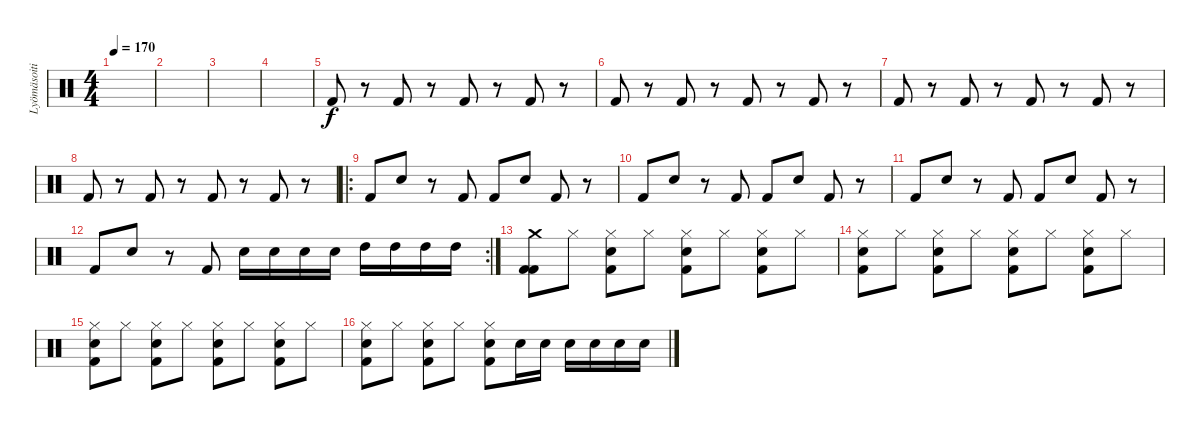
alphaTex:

\track ("Lyömäsoitin" "Lyömäsoiti") {instrument percussion}
\staff {score}
\articulation defaults
\ts (4 4)
\tempo 170
\clef neutral
\ks c
|
|
|
|
"Kick (hit) 2".8 r.8 "Kick (hit) 2".8 r.8 "Kick (hit) 2".8 r.8 "Kick (hit) 2".8 r.8 |
"Kick (hit) 2".8 r.8 "Kick (hit) 2".8 r.8 "Kick (hit) 2".8 r.8 "Kick (hit) 2".8 r.8 |
"Kick (hit) 2".8 r.8 "Kick (hit) 2".8 r.8 "Kick (hit) 2".8 r.8 "Kick (hit) 2".8 r.8 |
"Kick (hit) 2".8 r.8 "Kick (hit) 2".8 r.8 "Kick (hit) 2".8 r.8 "Kick (hit) 2".8 r.8 |
\ro "Kick (hit) 2".8 "Snare (hit) 2".8
r.8 "Kick (hit) 2".8 "Kick (hit) 2".8 "Snare (hit) 2".8 "Kick (hit) 2".8 r.8 |
"Kick (hit) 2".8 "Snare (hit) 2".8 r.8 "Kick (hit) 2".8 "Kick (hit) 2".8 "Snare (hit) 2".8 "Kick (hit) 2".8 r.8 |
"Kick (hit) 2".8 "Snare (hit) 2".8 r.8 "Kick (hit) 2".8 "Kick (hit) 2".8 "Snare (hit) 2".8 "Kick (hit) 2".8 r.8 |
\rc 2 "Kick (hit) 2".8 "Snare (hit) 2".8
r.8 "Kick (hit) 2".8 "Snare (hit) 2".16 "Snare (hit) 2".16 "Snare (hit) 2".16 "Snare (hit) 2".16 "High Tom (hit)".16 "High Tom (hit)".16 "High Tom (hit)".16 "High Tom (hit)".16 |
("Crash medium (hit)" "Kick (hit) 2" "Kick (hit) 2").8 "Hi-Hat (closed)".8 ("Hi-Hat (closed)" "Snare (hit) 2" "Kick (hit) 2").8 "Hi-Hat (closed)".8 ("Hi-Hat (closed)" "Snare (hit) 2" "Kick (hit) 2").8 "Hi-Hat (closed)".8 ("Hi-Hat (closed)" "Snare (hit) 2" "Kick (hit) 2").8 "Hi-Hat (closed)".8 |
("Hi-Hat (closed)" "Snare (hit) 2" "Kick (hit) 2").8 "Hi-Hat (closed)".8 ("Hi-Hat (closed)" "Snare (hit) 2" "Kick (hit) 2").8 "Hi-Hat (closed)".8 ("Hi-Hat (closed)" "Snare (hit) 2" "Kick (hit) 2").8 "Hi-Hat (closed)".8 ("Hi-Hat (closed)" "Snare (hit) 2" "Kick (hit) 2").8 "Hi-Hat (closed)".8 |
("Hi-Hat (closed)" "Snare (hit) 2" "Kick (hit) 2").8 "Hi-Hat (closed)".8 ("Hi-Hat (closed)" "Snare (hit) 2" "Kick (hit) 2").8 "Hi-Hat (closed)".8 ("Hi-Hat (closed)" "Snare (hit) 2" "Kick (hit) 2").8 "Hi-Hat (closed)".8 ("Hi-Hat (closed)" "Snare (hit) 2" "Kick (hit) 2").8 "Hi-Hat (closed)".8 |
("Hi-Hat (closed)" "Snare (hit) 2" "Kick (hit) 2").8 "Hi-Hat (closed)".8 ("Hi-Hat (closed)" "Snare (hit) 2" "Kick (hit) 2").8 "Hi-Hat (closed)".8 ("Hi-Hat (closed)" "Snare (hit) 2" "Kick (hit) 2").8 "Snare (hit) 2".16 "Snare (hit) 2".16 "Snare (hit) 2".16 "Snare (hit) 2".16 "Snare (hit) 2".16 "Snare (hit) 2".16
